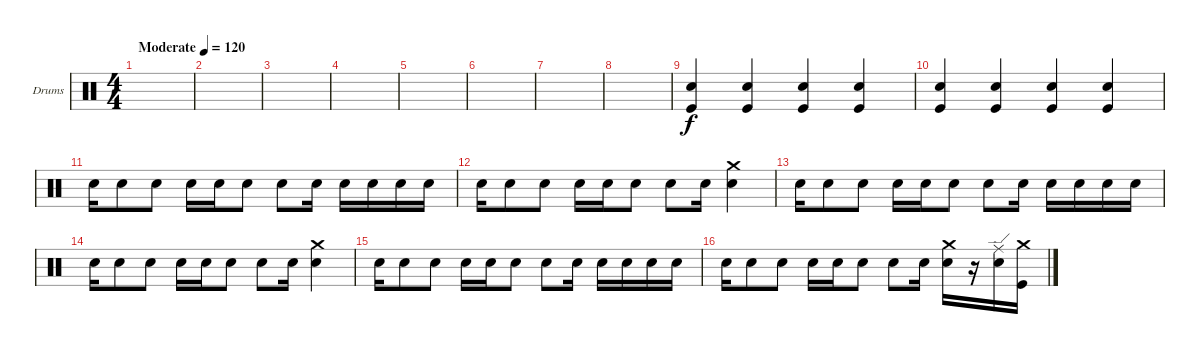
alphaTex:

\bracketExtendMode groupsimilarinstruments
\firstSystemTrackNameOrientation horizontal
\otherSystemsTrackNameOrientation horizontal
\track ("Drumkit" "Drums") {instrument percussion}
\staff {score}
\articulation defaults
\ts (4 4)
\beaming (8 2 2 2 2)
\tempo (120 "Moderate")
\clef neutral
\ks c
|
|
|
|
|
|
|
|
("Snare (hit) 2" "Kick (hit)").4 ("Snare (hit) 2" "Kick (hit)").4 ("Snare (hit) 2" "Kick (hit)").4 ("Snare (hit) 2" "Kick (hit)").4 |
("Snare (hit) 2" "Kick (hit)").4 ("Snare (hit) 2" "Kick (hit)").4 ("Snare (hit) 2" "Kick (hit)").4 ("Snare (hit) 2" "Kick (hit)").4 |
"Snare (hit) 2".16 "Snare (hit) 2".8 "Snare (hit) 2".8 "Snare (hit) 2".16 "Snare (hit) 2".16 "Snare (hit) 2".8 "Snare (hit) 2".8 "Snare (hit) 2".16 "Snare (hit) 2".16 "Snare (hit) 2".16 "Snare (hit) 2".16 "Snare (hit) 2".16 |
"Snare (hit) 2".16 "Snare (hit) 2".8 "Snare (hit) 2".8 "Snare (hit) 2".16 "Snare (hit) 2".16 "Snare (hit) 2".8 "Snare (hit) 2".8 "Snare (hit) 2".16 ("Crash medium (hit)" "Snare (hit) 2").4 |
"Snare (hit) 2".16 "Snare (hit) 2".8 "Snare (hit) 2".8 "Snare (hit) 2".16 "Snare (hit) 2".16 "Snare (hit) 2".8 "Snare (hit) 2".8 "Snare (hit) 2".16 "Snare (hit) 2".16 "Snare (hit) 2".16 "Snare (hit) 2".16 "Snare (hit) 2".16 |
"Snare (hit) 2".16 "Snare (hit) 2".8 "Snare (hit) 2".8 "Snare (hit) 2".16 "Snare (hit) 2".16 "Snare (hit) 2".8 "Snare (hit) 2".8 "Snare (hit) 2".16 ("Crash medium (hit)" "Snare (hit) 2").4 |
"Snare (hit) 2".16 "Snare (hit) 2".8 "Snare (hit) 2".8 "Snare (hit) 2".16 "Snare (hit) 2".16 "Snare (hit) 2".8 "Snare (hit) 2".8 "Snare (hit) 2".16 "Snare (hit) 2".16 "Snare (hit) 2".16 "Snare (hit) 2".16 "Snare (hit) 2".16 |
"Snare (hit) 2".16 "Snare (hit) 2".8 "Snare (hit) 2".8 "Snare (hit) 2".16 "Snare (hit) 2".16 "Snare (hit) 2".8 "Snare (hit) 2".8 "Snare (hit) 2".16 ("Crash medium (hit)" "Snare (hit) 2").16 r.16 ("Ride (edge)" "Snare (hit) 2").16 ("Crash medium (hit)" "Kick (hit)").16
